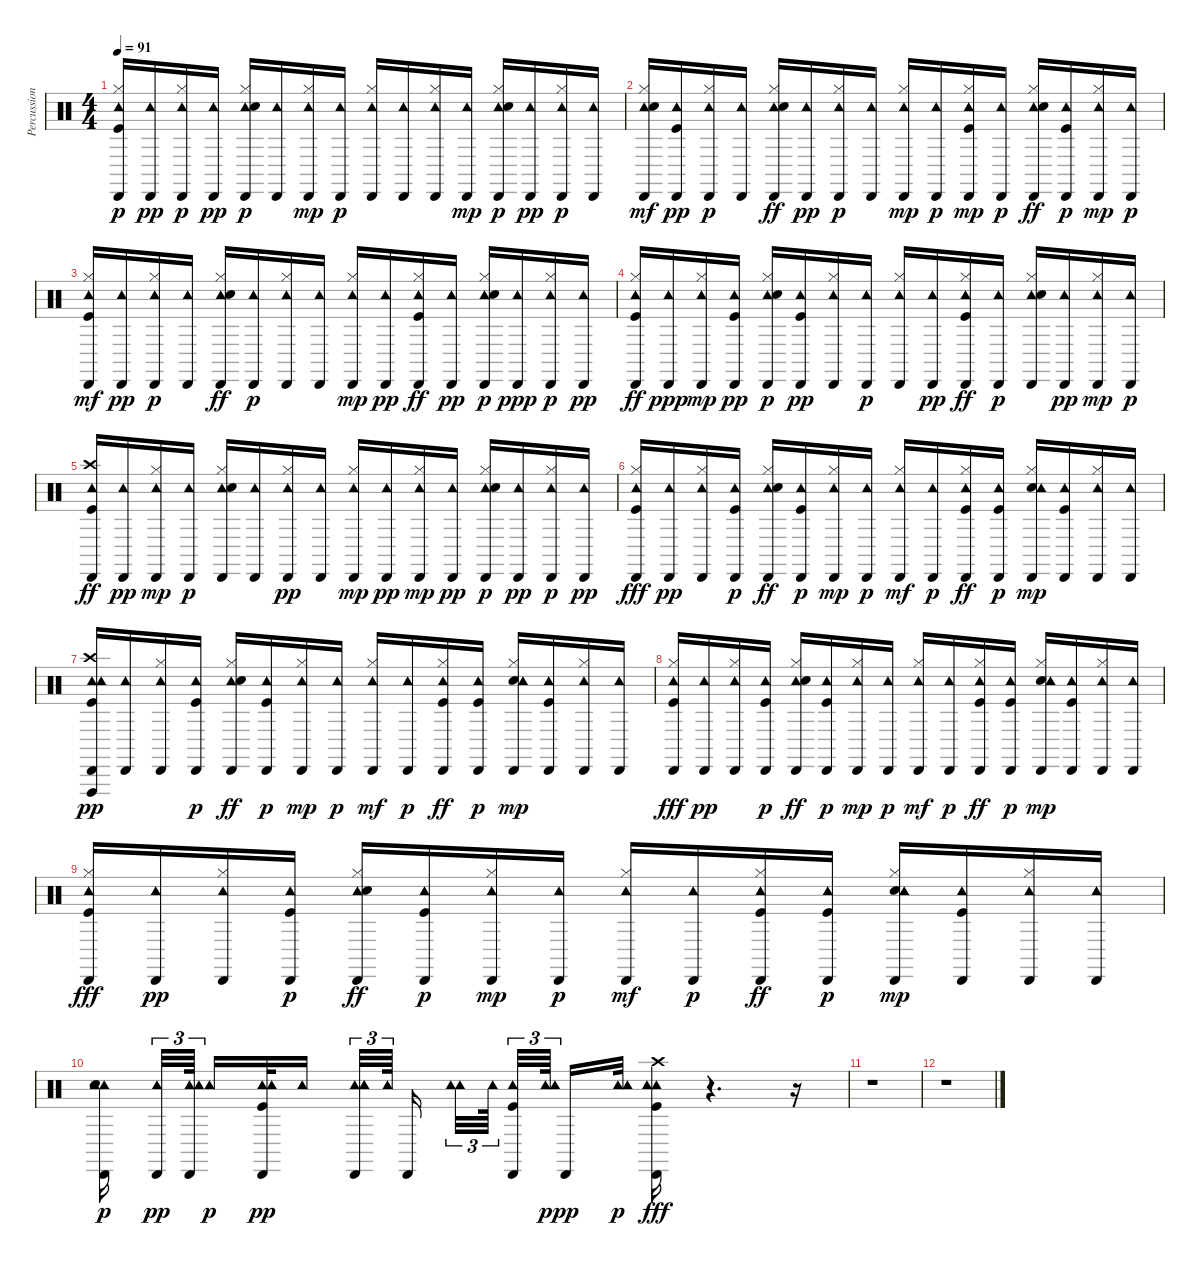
\track ("Percussion" "Percussion") {instrument percussion}
\staff {score}
\articulation defaults
\ts (4 4)
\tempo 91
\clef neutral
\ks c
("Tambourine (hit)" "Hi-Hat (closed)" "Kick (hit)" "Cabasa (hit)").16{dy p} ("Cabasa (hit)" "Tambourine (hit)").16{dy pp} ("Tambourine (hit)" "Cabasa (hit)" "Hi-Hat (closed)").16{dy p} ("Tambourine (hit)" "Cabasa (hit)").16{dy pp} ("Cabasa (hit)" "Tambourine (hit)" "Hi-Hat (closed)" "Snare (hit) 2").16{dy p} ("Cabasa (hit)" "Tambourine (hit)").16 ("Hi-Hat (closed)" "Cabasa (hit)" "Tambourine (hit)").16{dy mp} ("Cabasa (hit)" "Tambourine (hit)").16{dy p} ("Cabasa (hit)" "Tambourine (hit)" "Hi-Hat (closed)").16 ("Cabasa (hit)" "Tambourine (hit)").16 ("Cabasa (hit)" "Tambourine (hit)" "Hi-Hat (closed)").16 ("Cabasa (hit)" "Tambourine (hit)").16{dy mp} ("Cabasa (hit)" "Tambourine (hit)" "Hi-Hat (closed)" "Snare (hit) 2").16{dy p} ("Tambourine (hit)" "Cabasa (hit)").16{dy pp} ("Cabasa (hit)" "Tambourine (hit)" "Hi-Hat (closed)").16{dy p} ("Cabasa (hit)" "Tambourine (hit)").16 |
("Cabasa (hit)" "Hi-Hat (closed)" "Tambourine (hit)" "Snare (hit) 2").16{dy mf} ("Tambourine (hit)" "Kick (hit)" "Cabasa (hit)").16{dy pp} ("Cabasa (hit)" "Hi-Hat (closed)" "Tambourine (hit)").16{dy p} ("Cabasa (hit)" "Tambourine (hit)").16 ("Cabasa (hit)" "Tambourine (hit)" "Hi-Hat (closed)" "Snare (hit) 2").16{dy ff} ("Cabasa (hit)" "Tambourine (hit)").16{dy pp} ("Cabasa (hit)" "Tambourine (hit)" "Hi-Hat (closed)").16{dy p} ("Cabasa (hit)" "Tambourine (hit)").16 ("Cabasa (hit)" "Hi-Hat (closed)" "Tambourine (hit)").16{dy mp} ("Cabasa (hit)" "Tambourine (hit)").16{dy p} ("Cabasa (hit)" "Hi-Hat (closed)" "Kick (hit)" "Tambourine (hit)").16{dy mp} ("Cabasa (hit)" "Tambourine (hit)").16{dy p} ("Cabasa (hit)" "Hi-Hat (closed)" "Tambourine (hit)" "Snare (hit) 2").16{dy ff} ("Cabasa (hit)" "Kick (hit)" "Tambourine (hit)").16{dy p} ("Hi-Hat (closed)" "Cabasa (hit)" "Tambourine (hit)").16{dy mp} ("Cabasa (hit)" "Tambourine (hit)").16{dy p} |
("Hi-Hat (closed)" "Kick (hit)" "Cabasa (hit)" "Tambourine (hit)").16{dy mf} ("Cabasa (hit)" "Tambourine (hit)").16{dy pp} ("Cabasa (hit)" "Hi-Hat (closed)" "Tambourine (hit)").16{dy p} ("Cabasa (hit)" "Tambourine (hit)").16 ("Cabasa (hit)" "Hi-Hat (closed)" "Tambourine (hit)" "Snare (hit) 2").16{dy ff} ("Cabasa (hit)" "Tambourine (hit)").16{dy p} ("Hi-Hat (closed)" "Cabasa (hit)" "Tambourine (hit)").16 ("Cabasa (hit)" "Tambourine (hit)").16 ("Hi-Hat (closed)" "Cabasa (hit)" "Tambourine (hit)").16{dy mp} ("Cabasa (hit)" "Tambourine (hit)").16{dy pp} ("Cabasa (hit)" "Tambourine (hit)" "Hi-Hat (closed)" "Kick (hit)").16{dy ff} ("Tambourine (hit)" "Cabasa (hit)").16{dy pp} ("Hi-Hat (closed)" "Cabasa (hit)" "Tambourine (hit)" "Snare (hit) 2").16{dy p} ("Tambourine (hit)" "Cabasa (hit)").16{dy ppp} ("Hi-Hat (closed)" "Cabasa (hit)" "Tambourine (hit)").16{dy p} ("Tambourine (hit)" "Cabasa (hit)").16{dy pp} |
("Hi-Hat (closed)" "Cabasa (hit)" "Tambourine (hit)" "Kick (hit)").16{dy ff} ("Tambourine (hit)" "Cabasa (hit)").16{dy ppp} ("Hi-Hat (closed)" "Cabasa (hit)" "Tambourine (hit)").16{dy mp} ("Tambourine (hit)" "Kick (hit)" "Cabasa (hit)").16{dy pp} ("Hi-Hat (closed)" "Tambourine (hit)" "Snare (hit) 2" "Cabasa (hit)").16{dy p} ("Kick (hit)" "Cabasa (hit)" "Tambourine (hit)").16{dy pp} ("Hi-Hat (closed)" "Tambourine (hit)" "Cabasa (hit)").16 ("Cabasa (hit)" "Tambourine (hit)").16{dy p} ("Cabasa (hit)" "Tambourine (hit)" "Hi-Hat (closed)").16 ("Cabasa (hit)" "Tambourine (hit)").16{dy pp} ("Cabasa (hit)" "Tambourine (hit)" "Hi-Hat (closed)" "Kick (hit)").16{dy ff} ("Cabasa (hit)" "Tambourine (hit)").16{dy p} ("Cabasa (hit)" "Tambourine (hit)" "Hi-Hat (closed)" "Snare (hit) 2").16 ("Cabasa (hit)" "Tambourine (hit)").16{dy pp} ("Hi-Hat (closed)" "Cabasa (hit)" "Tambourine (hit)").16{dy mp} ("Cabasa (hit)" "Tambourine (hit)").16{dy p} |
("Cabasa (hit)" "Crash high (hit)" "Tambourine (hit)" "Kick (hit)").16{dy ff} ("Cabasa (hit)" "Tambourine (hit)").16{dy pp} ("Cabasa (hit)" "Hi-Hat (closed)" "Tambourine (hit)").16{dy mp} ("Cabasa (hit)" "Tambourine (hit)").16{dy p} ("Tambourine (hit)" "Hi-Hat (closed)" "Snare (hit) 2" "Cabasa (hit)").16 ("Cabasa (hit)" "Tambourine (hit)").16 ("Tambourine (hit)" "Hi-Hat (closed)" "Cabasa (hit)").16{dy pp} ("Tambourine (hit)" "Cabasa (hit)").16 ("Hi-Hat (closed)" "Cabasa (hit)" "Tambourine (hit)").16{dy mp} ("Tambourine (hit)" "Cabasa (hit)").16{dy pp} ("Hi-Hat (closed)" "Cabasa (hit)" "Tambourine (hit)").16{dy mp} ("Tambourine (hit)" "Cabasa (hit)").16{dy pp} ("Cabasa (hit)" "Tambourine (hit)" "Hi-Hat (closed)" "Snare (hit) 2").16{dy p} ("Tambourine (hit)" "Cabasa (hit)").16{dy pp} ("Cabasa (hit)" "Tambourine (hit)" "Hi-Hat (closed)").16{dy p} ("Tambourine (hit)" "Cabasa (hit)").16{dy pp} |
("Cabasa (hit)" "Tambourine (hit)" "Hi-Hat (closed)" "Kick (hit)").16{dy fff} ("Tambourine (hit)" "Cabasa (hit)").16{dy pp} ("Tambourine (hit)" "Hi-Hat (closed)" "Cabasa (hit)").16 ("Cabasa (hit)" "Tambourine (hit)" "Kick (hit)").16{dy p} ("Cabasa (hit)" "Hi-Hat (closed)" "Tambourine (hit)" "Snare (hit) 2").16{dy ff} ("Kick (hit)" "Cabasa (hit)" "Tambourine (hit)").16{dy p} ("Cabasa (hit)" "Hi-Hat (closed)" "Tambourine (hit)").16{dy mp} ("Cabasa (hit)" "Tambourine (hit)").16{dy p} ("Cabasa (hit)" "Hi-Hat (closed)" "Tambourine (hit)").16{dy mf} ("Cabasa (hit)" "Tambourine (hit)").16{dy p} ("Cabasa (hit)" "Tambourine (hit)" "Hi-Hat (closed)" "Kick (hit)").16{dy ff} ("Cabasa (hit)" "Tambourine (hit)" "Kick (hit)").16{dy p} ("Cabasa (hit)" "Snare (hit) 2" "Tambourine (hit)" "Hi-Hat (closed)").16{dy mp} ("Kick (hit)" "Cabasa (hit)" "Tambourine (hit)").16 ("Cabasa (hit)" "Tambourine (hit)" "Hi-Hat (closed)").16 ("Cabasa (hit)" "Tambourine (hit)").16 |
("Vibraslap (hit)" "Cabasa (hit)" "Kick (hit)" "Crash high (hit)" "Tambourine (hit)" "Tambourine (hit)").16{dy pp} ("Tambourine (hit)" "Cabasa (hit)").16 ("Tambourine (hit)" "Hi-Hat (closed)" "Cabasa (hit)").16 ("Cabasa (hit)" "Tambourine (hit)" "Kick (hit)").16{dy p} ("Cabasa (hit)" "Hi-Hat (closed)" "Tambourine (hit)" "Snare (hit) 2").16{dy ff} ("Kick (hit)" "Cabasa (hit)" "Tambourine (hit)").16{dy p} ("Cabasa (hit)" "Hi-Hat (closed)" "Tambourine (hit)").16{dy mp} ("Cabasa (hit)" "Tambourine (hit)").16{dy p} ("Cabasa (hit)" "Hi-Hat (closed)" "Tambourine (hit)").16{dy mf} ("Cabasa (hit)" "Tambourine (hit)").16{dy p} ("Cabasa (hit)" "Tambourine (hit)" "Hi-Hat (closed)" "Kick (hit)").16{dy ff} ("Cabasa (hit)" "Tambourine (hit)" "Kick (hit)").16{dy p} ("Cabasa (hit)" "Snare (hit) 2" "Tambourine (hit)" "Hi-Hat (closed)").16{dy mp} ("Kick (hit)" "Cabasa (hit)" "Tambourine (hit)").16 ("Cabasa (hit)" "Tambourine (hit)" "Hi-Hat (closed)").16 ("Cabasa (hit)" "Tambourine (hit)").16 |
("Cabasa (hit)" "Tambourine (hit)" "Hi-Hat (closed)" "Kick (hit)").16{dy fff} ("Tambourine (hit)" "Cabasa (hit)").16{dy pp} ("Tambourine (hit)" "Hi-Hat (closed)" "Cabasa (hit)").16 ("Cabasa (hit)" "Tambourine (hit)" "Kick (hit)").16{dy p} ("Cabasa (hit)" "Hi-Hat (closed)" "Tambourine (hit)" "Snare (hit) 2").16{dy ff} ("Kick (hit)" "Cabasa (hit)" "Tambourine (hit)").16{dy p} ("Cabasa (hit)" "Hi-Hat (closed)" "Tambourine (hit)").16{dy mp} ("Cabasa (hit)" "Tambourine (hit)").16{dy p} ("Cabasa (hit)" "Hi-Hat (closed)" "Tambourine (hit)").16{dy mf} ("Cabasa (hit)" "Tambourine (hit)").16{dy p} ("Cabasa (hit)" "Tambourine (hit)" "Hi-Hat (closed)" "Kick (hit)").16{dy ff} ("Cabasa (hit)" "Tambourine (hit)" "Kick (hit)").16{dy p} ("Cabasa (hit)" "Snare (hit) 2" "Tambourine (hit)" "Hi-Hat (closed)").16{dy mp} ("Kick (hit)" "Cabasa (hit)" "Tambourine (hit)").16 ("Cabasa (hit)" "Tambourine (hit)" "Hi-Hat (closed)").16 ("Cabasa (hit)" "Tambourine (hit)").16 |
("Cabasa (hit)" "Tambourine (hit)" "Hi-Hat (closed)" "Kick (hit)").16{dy fff} ("Tambourine (hit)" "Cabasa (hit)").16{dy pp} ("Tambourine (hit)" "Hi-Hat (closed)" "Cabasa (hit)").16 ("Cabasa (hit)" "Tambourine (hit)" "Kick (hit)").16{dy p} ("Cabasa (hit)" "Hi-Hat (closed)" "Tambourine (hit)" "Snare (hit) 2").16{dy ff} ("Kick (hit)" "Cabasa (hit)" "Tambourine (hit)").16{dy p} ("Cabasa (hit)" "Hi-Hat (closed)" "Tambourine (hit)").16{dy mp} ("Cabasa (hit)" "Tambourine (hit)").16{dy p} ("Cabasa (hit)" "Hi-Hat (closed)" "Tambourine (hit)").16{dy mf} ("Cabasa (hit)" "Tambourine (hit)").16{dy p} ("Cabasa (hit)" "Tambourine (hit)" "Hi-Hat (closed)" "Kick (hit)").16{dy ff} ("Cabasa (hit)" "Tambourine (hit)" "Kick (hit)").16{dy p} ("Cabasa (hit)" "Snare (hit) 2" "Tambourine (hit)" "Hi-Hat (closed)").16{dy mp} ("Kick (hit)" "Cabasa (hit)" "Tambourine (hit)").16 ("Cabasa (hit)" "Tambourine (hit)" "Hi-Hat (closed)").16 ("Cabasa (hit)" "Tambourine (hit)").16 |
("Cabasa (hit)" "Tambourine (hit)" "Snare (hit) 2" "Tambourine (hit)").16{dy p beam splitsecondary} ("Tambourine (hit)" "Cabasa (hit)").32{tu (3 2) dy pp} ("Tambourine (hit)" "Tambourine (hit)" "Cabasa (hit)").64{tu (3 2) beam splitsecondary} "Tambourine (hit)".16{dy p} ("Tambourine (hit)" "Tambourine (hit)" "Kick (hit)" "Cabasa (hit)").32{dy pp} "Tambourine (hit)".16 ("Tambourine (hit)" "Cabasa (hit)" "Tambourine (hit)" "Tambourine (hit)").32{tu (3 2)} "Tambourine (hit)".64{tu (3 2) beam splitsecondary} "Cabasa (hit)".16{beam splitsecondary} ("Tambourine (hit)" "Tambourine (hit)").32{tu (3 2)} "Tambourine (hit)".64{tu (3 2) beam splitsecondary} ("Cabasa (hit)" "Kick (hit)" "Tambourine (hit)").32{tu (3 2)} ("Tambourine (hit)" "Tambourine (hit)").64{tu (3 2) dy p beam splitsecondary} "Cabasa (hit)".16{dy pp} ("Tambourine (hit)" "Tambourine (hit)").32{dy p} ("Tambourine (hit)" "Cabasa (hit)" "Crash high (hit)" "Kick (hit)" "Tambourine (hit)").16{dy fff} r.4{d} r.16 |
r.1 |
r.1
